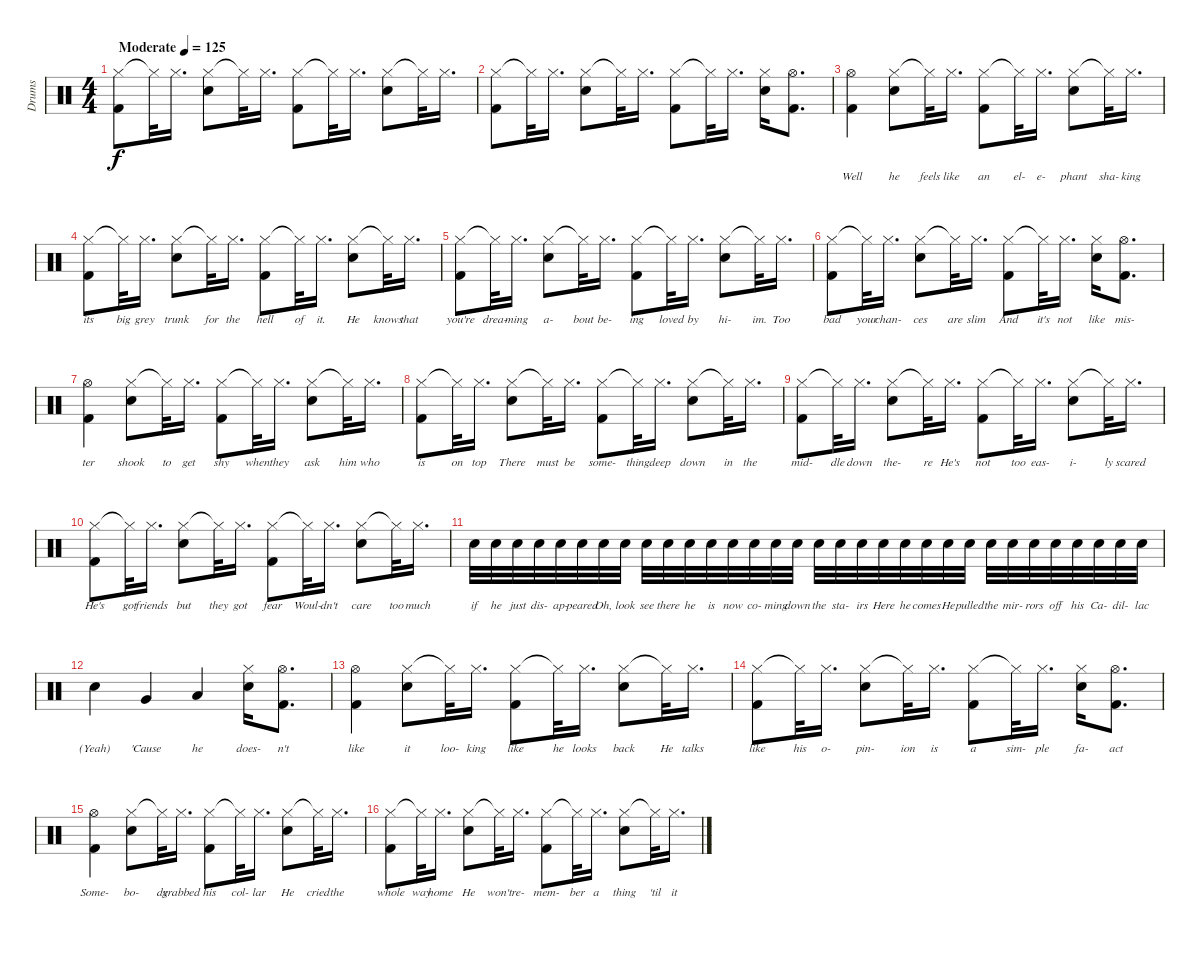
\track ("Drums" "Drums") {instrument percussion}
\staff {score}
\articulation defaults
\ts (4 4)
\tempo (125 "Moderate")
\clef neutral
\ks c
("Hi-Hat (closed)" "Kick (hit) 2").8{dy f} "Hi-Hat (closed)"{t}.32 "Hi-Hat (closed)".16{d} ("Hi-Hat (closed)" "Electric Snare (hit)").8 "Hi-Hat (closed)"{t}.32 "Hi-Hat (closed)".16{d} ("Hi-Hat (closed)" "Kick (hit) 2").8 "Hi-Hat (closed)"{t}.32 "Hi-Hat (closed)".16{d} ("Hi-Hat (closed)" "Electric Snare (hit)").8 "Hi-Hat (closed)"{t}.32 "Hi-Hat (closed)".16{d} |
("Hi-Hat (closed)" "Kick (hit) 2").8 "Hi-Hat (closed)"{t}.32 "Hi-Hat (closed)".16{d} ("Hi-Hat (closed)" "Electric Snare (hit)").8 "Hi-Hat (closed)"{t}.32 "Hi-Hat (closed)".16{d} ("Hi-Hat (closed)" "Kick (hit) 2").8 "Hi-Hat (closed)"{t}.32 "Hi-Hat (closed)".16{d} ("Hi-Hat (closed)" "Electric Snare (hit)").16 ("Hi-Hat (open)" "Kick (hit) 2").8{d} |
("Hi-Hat (open)" "Kick (hit) 2").4{lyrics (0 "Well") lyrics (1 "") lyrics (2 "") lyrics (3 "") lyrics (4 "")} ("Hi-Hat (closed)" "Electric Snare (hit)").8{lyrics (0 "he") lyrics (1 "") lyrics (2 "") lyrics (3 "") lyrics (4 "")} "Hi-Hat (closed)"{t}.32{lyrics (0 "feels") lyrics (1 "") lyrics (2 "") lyrics (3 "") lyrics (4 "")} "Hi-Hat (closed)".16{d lyrics (0 "like") lyrics (1 "") lyrics (2 "") lyrics (3 "") lyrics (4 "")} ("Hi-Hat (closed)" "Kick (hit) 2").8{lyrics (0 "an") lyrics (1 "") lyrics (2 "") lyrics (3 "") lyrics (4 "")} "Hi-Hat (closed)"{t}.32{lyrics (0 "el-") lyrics (1 "") lyrics (2 "") lyrics (3 "") lyrics (4 "")} "Hi-Hat (closed)".16{d lyrics (0 "e-") lyrics (1 "") lyrics (2 "") lyrics (3 "") lyrics (4 "")} ("Hi-Hat (closed)" "Electric Snare (hit)").8{lyrics (0 "phant") lyrics (1 "") lyrics (2 "") lyrics (3 "") lyrics (4 "")} "Hi-Hat (closed)"{t}.32{lyrics (0 "sha-") lyrics (1 "") lyrics (2 "") lyrics (3 "") lyrics (4 "")} "Hi-Hat (closed)".16{d lyrics (0 "king") lyrics (1 "") lyrics (2 "") lyrics (3 "") lyrics (4 "")} |
("Hi-Hat (closed)" "Kick (hit) 2").8{lyrics (0 "its") lyrics (1 "") lyrics (2 "") lyrics (3 "") lyrics (4 "")} "Hi-Hat (closed)"{t}.32{lyrics (0 "big") lyrics (1 "") lyrics (2 "") lyrics (3 "") lyrics (4 "")} "Hi-Hat (closed)".16{d lyrics (0 "grey") lyrics (1 "") lyrics (2 "") lyrics (3 "") lyrics (4 "")} ("Hi-Hat (closed)" "Electric Snare (hit)").8{lyrics (0 "trunk") lyrics (1 "") lyrics (2 "") lyrics (3 "") lyrics (4 "")} "Hi-Hat (closed)"{t}.32{lyrics (0 "for") lyrics (1 "") lyrics (2 "") lyrics (3 "") lyrics (4 "")} "Hi-Hat (closed)".16{d lyrics (0 "the") lyrics (1 "") lyrics (2 "") lyrics (3 "") lyrics (4 "")} ("Hi-Hat (closed)" "Kick (hit) 2").8{lyrics (0 "hell") lyrics (1 "") lyrics (2 "") lyrics (3 "") lyrics (4 "")} "Hi-Hat (closed)"{t}.32{lyrics (0 "of") lyrics (1 "") lyrics (2 "") lyrics (3 "") lyrics (4 "")} "Hi-Hat (closed)".16{d lyrics (0 "it.") lyrics (1 "") lyrics (2 "") lyrics (3 "") lyrics (4 "")} ("Hi-Hat (closed)" "Electric Snare (hit)").8{lyrics (0 "He") lyrics (1 "") lyrics (2 "") lyrics (3 "") lyrics (4 "")} "Hi-Hat (closed)"{t}.32{lyrics (0 "knows") lyrics (1 "") lyrics (2 "") lyrics (3 "") lyrics (4 "")} "Hi-Hat (closed)".16{d lyrics (0 "that") lyrics (1 "") lyrics (2 "") lyrics (3 "") lyrics (4 "")} |
("Hi-Hat (closed)" "Kick (hit) 2").8{lyrics (0 "you're") lyrics (1 "") lyrics (2 "") lyrics (3 "") lyrics (4 "")} "Hi-Hat (closed)"{t}.32{lyrics (0 "drea-") lyrics (1 "") lyrics (2 "") lyrics (3 "") lyrics (4 "")} "Hi-Hat (closed)".16{d lyrics (0 "ming") lyrics (1 "") lyrics (2 "") lyrics (3 "") lyrics (4 "")} ("Hi-Hat (closed)" "Electric Snare (hit)").8{lyrics (0 "a-") lyrics (1 "") lyrics (2 "") lyrics (3 "") lyrics (4 "")} "Hi-Hat (closed)"{t}.32{lyrics (0 "bout") lyrics (1 "") lyrics (2 "") lyrics (3 "") lyrics (4 "")} "Hi-Hat (closed)".16{d lyrics (0 "be-") lyrics (1 "") lyrics (2 "") lyrics (3 "") lyrics (4 "")} ("Hi-Hat (closed)" "Kick (hit) 2").8{lyrics (0 "ing") lyrics (1 "") lyrics (2 "") lyrics (3 "") lyrics (4 "")} "Hi-Hat (closed)"{t}.32{lyrics (0 "loved") lyrics (1 "") lyrics (2 "") lyrics (3 "") lyrics (4 "")} "Hi-Hat (closed)".16{d lyrics (0 "by") lyrics (1 "") lyrics (2 "") lyrics (3 "") lyrics (4 "")} ("Hi-Hat (closed)" "Electric Snare (hit)").8{lyrics (0 "hi-") lyrics (1 "") lyrics (2 "") lyrics (3 "") lyrics (4 "")} "Hi-Hat (closed)"{t}.32{lyrics (0 "im.") lyrics (1 "") lyrics (2 "") lyrics (3 "") lyrics (4 "")} "Hi-Hat (closed)".16{d lyrics (0 "Too") lyrics (1 "") lyrics (2 "") lyrics (3 "") lyrics (4 "")} |
("Hi-Hat (closed)" "Kick (hit) 2").8{lyrics (0 "bad") lyrics (1 "") lyrics (2 "") lyrics (3 "") lyrics (4 "")} "Hi-Hat (closed)"{t}.32{lyrics (0 "your") lyrics (1 "") lyrics (2 "") lyrics (3 "") lyrics (4 "")} "Hi-Hat (closed)".16{d lyrics (0 "chan-") lyrics (1 "") lyrics (2 "") lyrics (3 "") lyrics (4 "")} ("Hi-Hat (closed)" "Electric Snare (hit)").8{lyrics (0 "ces") lyrics (1 "") lyrics (2 "") lyrics (3 "") lyrics (4 "")} "Hi-Hat (closed)"{t}.32{lyrics (0 "are") lyrics (1 "") lyrics (2 "") lyrics (3 "") lyrics (4 "")} "Hi-Hat (closed)".16{d lyrics (0 "slim") lyrics (1 "") lyrics (2 "") lyrics (3 "") lyrics (4 "")} ("Hi-Hat (closed)" "Kick (hit) 2").8{lyrics (0 "And") lyrics (1 "") lyrics (2 "") lyrics (3 "") lyrics (4 "")} "Hi-Hat (closed)"{t}.32{lyrics (0 "it's") lyrics (1 "") lyrics (2 "") lyrics (3 "") lyrics (4 "")} "Hi-Hat (closed)".16{d lyrics (0 "not") lyrics (1 "") lyrics (2 "") lyrics (3 "") lyrics (4 "")} ("Hi-Hat (closed)" "Electric Snare (hit)").16{lyrics (0 "like") lyrics (1 "") lyrics (2 "") lyrics (3 "") lyrics (4 "")} ("Hi-Hat (open)" "Kick (hit) 2").8{d lyrics (0 "mis-") lyrics (1 "") lyrics (2 "") lyrics (3 "") lyrics (4 "")} |
("Hi-Hat (open)" "Kick (hit) 2").4{lyrics (0 "ter") lyrics (1 "") lyrics (2 "") lyrics (3 "") lyrics (4 "")} ("Hi-Hat (closed)" "Electric Snare (hit)").8{lyrics (0 "shook") lyrics (1 "") lyrics (2 "") lyrics (3 "") lyrics (4 "")} "Hi-Hat (closed)"{t}.32{lyrics (0 "to") lyrics (1 "") lyrics (2 "") lyrics (3 "") lyrics (4 "")} "Hi-Hat (closed)".16{d lyrics (0 "get") lyrics (1 "") lyrics (2 "") lyrics (3 "") lyrics (4 "")} ("Hi-Hat (closed)" "Kick (hit) 2").8{lyrics (0 "shy") lyrics (1 "") lyrics (2 "") lyrics (3 "") lyrics (4 "")} "Hi-Hat (closed)"{t}.32{lyrics (0 "when") lyrics (1 "") lyrics (2 "") lyrics (3 "") lyrics (4 "")} "Hi-Hat (closed)".16{d lyrics (0 "they") lyrics (1 "") lyrics (2 "") lyrics (3 "") lyrics (4 "")} ("Hi-Hat (closed)" "Electric Snare (hit)").8{lyrics (0 "ask") lyrics (1 "") lyrics (2 "") lyrics (3 "") lyrics (4 "")} "Hi-Hat (closed)"{t}.32{lyrics (0 "him") lyrics (1 "") lyrics (2 "") lyrics (3 "") lyrics (4 "")} "Hi-Hat (closed)".16{d lyrics (0 "who") lyrics (1 "") lyrics (2 "") lyrics (3 "") lyrics (4 "")} |
("Hi-Hat (closed)" "Kick (hit) 2").8{lyrics (0 "is") lyrics (1 "") lyrics (2 "") lyrics (3 "") lyrics (4 "")} "Hi-Hat (closed)"{t}.32{lyrics (0 "on") lyrics (1 "") lyrics (2 "") lyrics (3 "") lyrics (4 "")} "Hi-Hat (closed)".16{d lyrics (0 "top") lyrics (1 "") lyrics (2 "") lyrics (3 "") lyrics (4 "")} ("Hi-Hat (closed)" "Electric Snare (hit)").8{lyrics (0 "There") lyrics (1 "") lyrics (2 "") lyrics (3 "") lyrics (4 "")} "Hi-Hat (closed)"{t}.32{lyrics (0 "must") lyrics (1 "") lyrics (2 "") lyrics (3 "") lyrics (4 "")} "Hi-Hat (closed)".16{d lyrics (0 "be") lyrics (1 "") lyrics (2 "") lyrics (3 "") lyrics (4 "")} ("Hi-Hat (closed)" "Kick (hit) 2").8{lyrics (0 "some-") lyrics (1 "") lyrics (2 "") lyrics (3 "") lyrics (4 "")} "Hi-Hat (closed)"{t}.32{lyrics (0 "thing") lyrics (1 "") lyrics (2 "") lyrics (3 "") lyrics (4 "")} "Hi-Hat (closed)".16{d lyrics (0 "deep") lyrics (1 "") lyrics (2 "") lyrics (3 "") lyrics (4 "")} ("Hi-Hat (closed)" "Electric Snare (hit)").8{lyrics (0 "down") lyrics (1 "") lyrics (2 "") lyrics (3 "") lyrics (4 "")} "Hi-Hat (closed)"{t}.32{lyrics (0 "in") lyrics (1 "") lyrics (2 "") lyrics (3 "") lyrics (4 "")} "Hi-Hat (closed)".16{d lyrics (0 "the") lyrics (1 "") lyrics (2 "") lyrics (3 "") lyrics (4 "")} |
("Hi-Hat (closed)" "Kick (hit) 2").8{lyrics (0 "mid-") lyrics (1 "") lyrics (2 "") lyrics (3 "") lyrics (4 "")} "Hi-Hat (closed)"{t}.32{lyrics (0 "dle") lyrics (1 "") lyrics (2 "") lyrics (3 "") lyrics (4 "")} "Hi-Hat (closed)".16{d lyrics (0 "down") lyrics (1 "") lyrics (2 "") lyrics (3 "") lyrics (4 "")} ("Hi-Hat (closed)" "Electric Snare (hit)").8{lyrics (0 "the-") lyrics (1 "") lyrics (2 "") lyrics (3 "") lyrics (4 "")} "Hi-Hat (closed)"{t}.32{lyrics (0 "re") lyrics (1 "") lyrics (2 "") lyrics (3 "") lyrics (4 "")} "Hi-Hat (closed)".16{d lyrics (0 "He's") lyrics (1 "") lyrics (2 "") lyrics (3 "") lyrics (4 "")} ("Hi-Hat (closed)" "Kick (hit) 2").8{lyrics (0 "not") lyrics (1 "") lyrics (2 "") lyrics (3 "") lyrics (4 "")} "Hi-Hat (closed)"{t}.32{lyrics (0 "too") lyrics (1 "") lyrics (2 "") lyrics (3 "") lyrics (4 "")} "Hi-Hat (closed)".16{d lyrics (0 "eas-") lyrics (1 "") lyrics (2 "") lyrics (3 "") lyrics (4 "")} ("Hi-Hat (closed)" "Electric Snare (hit)").8{lyrics (0 "i-") lyrics (1 "") lyrics (2 "") lyrics (3 "") lyrics (4 "")} "Hi-Hat (closed)"{t}.32{lyrics (0 "ly") lyrics (1 "") lyrics (2 "") lyrics (3 "") lyrics (4 "")} "Hi-Hat (closed)".16{d lyrics (0 "scared") lyrics (1 "") lyrics (2 "") lyrics (3 "") lyrics (4 "")} |
("Hi-Hat (closed)" "Kick (hit) 2").8{lyrics (0 "He's") lyrics (1 "") lyrics (2 "") lyrics (3 "") lyrics (4 "")} "Hi-Hat (closed)"{t}.32{lyrics (0 "got") lyrics (1 "") lyrics (2 "") lyrics (3 "") lyrics (4 "")} "Hi-Hat (closed)".16{d lyrics (0 "friends") lyrics (1 "") lyrics (2 "") lyrics (3 "") lyrics (4 "")} ("Hi-Hat (closed)" "Electric Snare (hit)").8{lyrics (0 "but") lyrics (1 "") lyrics (2 "") lyrics (3 "") lyrics (4 "")} "Hi-Hat (closed)"{t}.32{lyrics (0 "they") lyrics (1 "") lyrics (2 "") lyrics (3 "") lyrics (4 "")} "Hi-Hat (closed)".16{d lyrics (0 "got") lyrics (1 "") lyrics (2 "") lyrics (3 "") lyrics (4 "")} ("Hi-Hat (closed)" "Kick (hit) 2").8{lyrics (0 "fear") lyrics (1 "") lyrics (2 "") lyrics (3 "") lyrics (4 "")} "Hi-Hat (closed)"{t}.32{lyrics (0 "Woul-") lyrics (1 "") lyrics (2 "") lyrics (3 "") lyrics (4 "")} "Hi-Hat (closed)".16{d lyrics (0 "dn't") lyrics (1 "") lyrics (2 "") lyrics (3 "") lyrics (4 "")} ("Hi-Hat (closed)" "Electric Snare (hit)").8{lyrics (0 "care") lyrics (1 "") lyrics (2 "") lyrics (3 "") lyrics (4 "")} "Hi-Hat (closed)"{t}.32{lyrics (0 "too") lyrics (1 "") lyrics (2 "") lyrics (3 "") lyrics (4 "")} "Hi-Hat (closed)".16{d lyrics (0 "much") lyrics (1 "") lyrics (2 "") lyrics (3 "") lyrics (4 "")} |
"Electric Snare (hit)".32{lyrics (0 "if") lyrics (1 "") lyrics (2 "") lyrics (3 "") lyrics (4 "")} "Electric Snare (hit)".32{lyrics (0 "he") lyrics (1 "") lyrics (2 "") lyrics (3 "") lyrics (4 "")} "Electric Snare (hit)".32{lyrics (0 "just") lyrics (1 "") lyrics (2 "") lyrics (3 "") lyrics (4 "")} "Electric Snare (hit)".32{lyrics (0 "dis-") lyrics (1 "") lyrics (2 "") lyrics (3 "") lyrics (4 "")} "Electric Snare (hit)".32{lyrics (0 "ap-") lyrics (1 "") lyrics (2 "") lyrics (3 "") lyrics (4 "")} "Electric Snare (hit)".32{lyrics (0 "peared") lyrics (1 "") lyrics (2 "") lyrics (3 "") lyrics (4 "")} "Electric Snare (hit)".32{lyrics (0 "Oh,") lyrics (1 "") lyrics (2 "") lyrics (3 "") lyrics (4 "")} "Electric Snare (hit)".32{lyrics (0 "look") lyrics (1 "") lyrics (2 "") lyrics (3 "") lyrics (4 "")} "Electric Snare (hit)".32{lyrics (0 "see") lyrics (1 "") lyrics (2 "") lyrics (3 "") lyrics (4 "")} "Electric Snare (hit)".32{lyrics (0 "there") lyrics (1 "") lyrics (2 "") lyrics (3 "") lyrics (4 "")} "Electric Snare (hit)".32{lyrics (0 "he") lyrics (1 "") lyrics (2 "") lyrics (3 "") lyrics (4 "")} "Electric Snare (hit)".32{lyrics (0 "is") lyrics (1 "") lyrics (2 "") lyrics (3 "") lyrics (4 "")} "Electric Snare (hit)".32{lyrics (0 "now") lyrics (1 "") lyrics (2 "") lyrics (3 "") lyrics (4 "")} "Electric Snare (hit)".32{lyrics (0 "co-") lyrics (1 "") lyrics (2 "") lyrics (3 "") lyrics (4 "")} "Electric Snare (hit)".32{lyrics (0 "ming") lyrics (1 "") lyrics (2 "") lyrics (3 "") lyrics (4 "")} "Electric Snare (hit)".32{lyrics (0 "down") lyrics (1 "") lyrics (2 "") lyrics (3 "") lyrics (4 "")} "Electric Snare (hit)".32{lyrics (0 "the") lyrics (1 "") lyrics (2 "") lyrics (3 "") lyrics (4 "")} "Electric Snare (hit)".32{lyrics (0 "sta-") lyrics (1 "") lyrics (2 "") lyrics (3 "") lyrics (4 "")} "Electric Snare (hit)".32{lyrics (0 "irs") lyrics (1 "") lyrics (2 "") lyrics (3 "") lyrics (4 "")} "Electric Snare (hit)".32{lyrics (0 "Here") lyrics (1 "") lyrics (2 "") lyrics (3 "") lyrics (4 "")} "Electric Snare (hit)".32{lyrics (0 "he") lyrics (1 "") lyrics (2 "") lyrics (3 "") lyrics (4 "")} "Electric Snare (hit)".32{lyrics (0 "comes") lyrics (1 "") lyrics (2 "") lyrics (3 "") lyrics (4 "")} "Electric Snare (hit)".32{lyrics (0 "He") lyrics (1 "") lyrics (2 "") lyrics (3 "") lyrics (4 "")} "Electric Snare (hit)".32{lyrics (0 "pulled") lyrics (1 "") lyrics (2 "") lyrics (3 "") lyrics (4 "")} "Electric Snare (hit)".32{lyrics (0 "the") lyrics (1 "") lyrics (2 "") lyrics (3 "") lyrics (4 "")} "Electric Snare (hit)".32{lyrics (0 "mir-") lyrics (1 "") lyrics (2 "") lyrics (3 "") lyrics (4 "")} "Electric Snare (hit)".32{lyrics (0 "rors") lyrics (1 "") lyrics (2 "") lyrics (3 "") lyrics (4 "")} "Electric Snare (hit)".32{lyrics (0 "off") lyrics (1 "") lyrics (2 "") lyrics (3 "") lyrics (4 "")} "Electric Snare (hit)".32{lyrics (0 "his") lyrics (1 "") lyrics (2 "") lyrics (3 "") lyrics (4 "")} "Electric Snare (hit)".32{lyrics (0 "Ca-") lyrics (1 "") lyrics (2 "") lyrics (3 "") lyrics (4 "")} "Electric Snare (hit)".32{lyrics (0 "dil-") lyrics (1 "") lyrics (2 "") lyrics (3 "") lyrics (4 "")} "Electric Snare (hit)".32{lyrics (0 "lac") lyrics (1 "") lyrics (2 "") lyrics (3 "") lyrics (4 "")} |
"Electric Snare (hit)".4{lyrics (0 "(Yeah)") lyrics (1 "") lyrics (2 "") lyrics (3 "") lyrics (4 "")} "Very Low Tom (hit)".4{lyrics (0 "'Cause") lyrics (1 "") lyrics (2 "") lyrics (3 "") lyrics (4 "")} "Low Floor Tom (hit)".4{lyrics (0 "he") lyrics (1 "") lyrics (2 "") lyrics (3 "") lyrics (4 "")} ("Hi-Hat (closed)" "Electric Snare (hit)").16{lyrics (0 "does-") lyrics (1 "") lyrics (2 "") lyrics (3 "") lyrics (4 "")} ("Hi-Hat (open)" "Kick (hit) 2").8{d lyrics (0 "n't") lyrics (1 "") lyrics (2 "") lyrics (3 "") lyrics (4 "")} |
("Hi-Hat (open)" "Kick (hit) 2").4{lyrics (0 "like") lyrics (1 "") lyrics (2 "") lyrics (3 "") lyrics (4 "")} ("Hi-Hat (closed)" "Electric Snare (hit)").8{lyrics (0 "it") lyrics (1 "") lyrics (2 "") lyrics (3 "") lyrics (4 "")} "Hi-Hat (closed)"{t}.32{lyrics (0 "loo-") lyrics (1 "") lyrics (2 "") lyrics (3 "") lyrics (4 "")} "Hi-Hat (closed)".16{d lyrics (0 "king") lyrics (1 "") lyrics (2 "") lyrics (3 "") lyrics (4 "")} ("Hi-Hat (closed)" "Kick (hit) 2").8{lyrics (0 "like") lyrics (1 "") lyrics (2 "") lyrics (3 "") lyrics (4 "")} "Hi-Hat (closed)"{t}.32{lyrics (0 "he") lyrics (1 "") lyrics (2 "") lyrics (3 "") lyrics (4 "")} "Hi-Hat (closed)".16{d lyrics (0 "looks") lyrics (1 "") lyrics (2 "") lyrics (3 "") lyrics (4 "")} ("Hi-Hat (closed)" "Electric Snare (hit)").8{lyrics (0 "back") lyrics (1 "") lyrics (2 "") lyrics (3 "") lyrics (4 "")} "Hi-Hat (closed)"{t}.32{lyrics (0 "He") lyrics (1 "") lyrics (2 "") lyrics (3 "") lyrics (4 "")} "Hi-Hat (closed)".16{d lyrics (0 "talks") lyrics (1 "") lyrics (2 "") lyrics (3 "") lyrics (4 "")} |
("Hi-Hat (closed)" "Kick (hit) 2").8{lyrics (0 "like") lyrics (1 "") lyrics (2 "") lyrics (3 "") lyrics (4 "")} "Hi-Hat (closed)"{t}.32{lyrics (0 "his") lyrics (1 "") lyrics (2 "") lyrics (3 "") lyrics (4 "")} "Hi-Hat (closed)".16{d lyrics (0 "o-") lyrics (1 "") lyrics (2 "") lyrics (3 "") lyrics (4 "")} ("Hi-Hat (closed)" "Electric Snare (hit)").8{lyrics (0 "pin-") lyrics (1 "") lyrics (2 "") lyrics (3 "") lyrics (4 "")} "Hi-Hat (closed)"{t}.32{lyrics (0 "ion") lyrics (1 "") lyrics (2 "") lyrics (3 "") lyrics (4 "")} "Hi-Hat (closed)".16{d lyrics (0 "is") lyrics (1 "") lyrics (2 "") lyrics (3 "") lyrics (4 "")} ("Hi-Hat (closed)" "Kick (hit) 2").8{lyrics (0 "a") lyrics (1 "") lyrics (2 "") lyrics (3 "") lyrics (4 "")} "Hi-Hat (closed)"{t}.32{lyrics (0 "sim-") lyrics (1 "") lyrics (2 "") lyrics (3 "") lyrics (4 "")} "Hi-Hat (closed)".16{d lyrics (0 "ple") lyrics (1 "") lyrics (2 "") lyrics (3 "") lyrics (4 "")} ("Hi-Hat (closed)" "Electric Snare (hit)").16{lyrics (0 "fa-") lyrics (1 "") lyrics (2 "") lyrics (3 "") lyrics (4 "")} ("Hi-Hat (open)" "Kick (hit) 2").8{d lyrics (0 "act") lyrics (1 "") lyrics (2 "") lyrics (3 "") lyrics (4 "")} |
("Hi-Hat (open)" "Kick (hit) 2").4{lyrics (0 "Some-") lyrics (1 "") lyrics (2 "") lyrics (3 "") lyrics (4 "")} ("Hi-Hat (closed)" "Electric Snare (hit)").8{lyrics (0 "bo-") lyrics (1 "") lyrics (2 "") lyrics (3 "") lyrics (4 "")} "Hi-Hat (closed)"{t}.32{lyrics (0 "dy") lyrics (1 "") lyrics (2 "") lyrics (3 "") lyrics (4 "")} "Hi-Hat (closed)".16{d lyrics (0 "grabbed") lyrics (1 "") lyrics (2 "") lyrics (3 "") lyrics (4 "")} ("Hi-Hat (closed)" "Kick (hit) 2").8{lyrics (0 "his") lyrics (1 "") lyrics (2 "") lyrics (3 "") lyrics (4 "")} "Hi-Hat (closed)"{t}.32{lyrics (0 "col-") lyrics (1 "") lyrics (2 "") lyrics (3 "") lyrics (4 "")} "Hi-Hat (closed)".16{d lyrics (0 "lar") lyrics (1 "") lyrics (2 "") lyrics (3 "") lyrics (4 "")} ("Hi-Hat (closed)" "Electric Snare (hit)").8{lyrics (0 "He") lyrics (1 "") lyrics (2 "") lyrics (3 "") lyrics (4 "")} "Hi-Hat (closed)"{t}.32{lyrics (0 "cried") lyrics (1 "") lyrics (2 "") lyrics (3 "") lyrics (4 "")} "Hi-Hat (closed)".16{d lyrics (0 "the") lyrics (1 "") lyrics (2 "") lyrics (3 "") lyrics (4 "")} |
("Hi-Hat (closed)" "Kick (hit) 2").8{lyrics (0 "whole") lyrics (1 "") lyrics (2 "") lyrics (3 "") lyrics (4 "")} "Hi-Hat (closed)"{t}.32{lyrics (0 "way") lyrics (1 "") lyrics (2 "") lyrics (3 "") lyrics (4 "")} "Hi-Hat (closed)".16{d lyrics (0 "home") lyrics (1 "") lyrics (2 "") lyrics (3 "") lyrics (4 "")} ("Hi-Hat (closed)" "Electric Snare (hit)").8{lyrics (0 "He") lyrics (1 "") lyrics (2 "") lyrics (3 "") lyrics (4 "")} "Hi-Hat (closed)"{t}.32{lyrics (0 "won't") lyrics (1 "") lyrics (2 "") lyrics (3 "") lyrics (4 "")} "Hi-Hat (closed)".16{d lyrics (0 "re-") lyrics (1 "") lyrics (2 "") lyrics (3 "") lyrics (4 "")} ("Hi-Hat (closed)" "Kick (hit) 2").8{lyrics (0 "mem-") lyrics (1 "") lyrics (2 "") lyrics (3 "") lyrics (4 "")} "Hi-Hat (closed)"{t}.32{lyrics (0 "ber") lyrics (1 "") lyrics (2 "") lyrics (3 "") lyrics (4 "")} "Hi-Hat (closed)".16{d lyrics (0 "a") lyrics (1 "") lyrics (2 "") lyrics (3 "") lyrics (4 "")} ("Hi-Hat (closed)" "Electric Snare (hit)").8{lyrics (0 "thing") lyrics (1 "") lyrics (2 "") lyrics (3 "") lyrics (4 "")} "Hi-Hat (closed)"{t}.32{lyrics (0 "'til") lyrics (1 "") lyrics (2 "") lyrics (3 "") lyrics (4 "")} "Hi-Hat (closed)".16{d lyrics (0 "it") lyrics (1 "") lyrics (2 "") lyrics (3 "") lyrics (4 "")}
